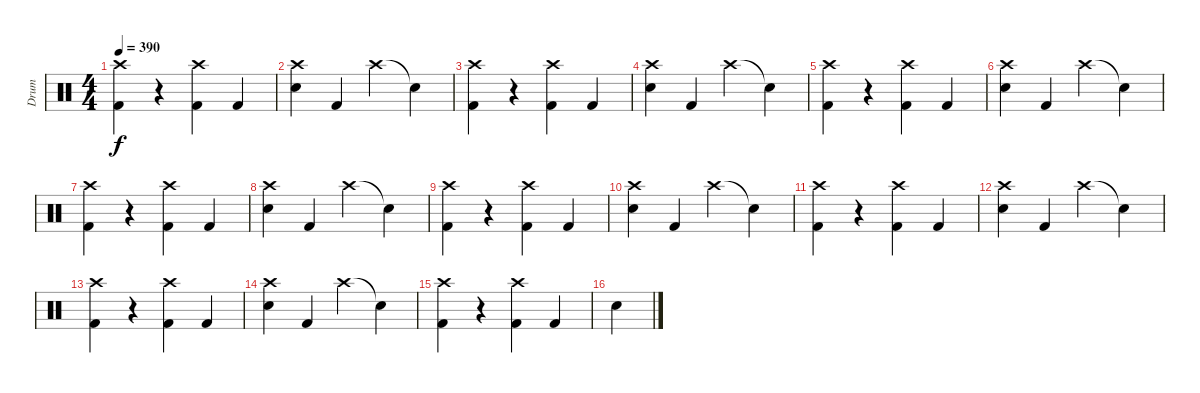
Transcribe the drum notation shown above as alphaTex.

\track ("Drum" "Drum") {instrument percussion}
\staff {score}
\articulation defaults
\ts (4 4)
\tempo 390
\clef neutral
\ks c
("Crash high (hit)" "Kick (hit) 2").4{dy f} r.4 ("Crash high (hit)" "Kick (hit) 2").4 "Kick (hit) 2".4 |
("Crash high (hit)" "Electric Snare (hit)").4 "Kick (hit) 2".4 "Crash high (hit)".4 "Snare (hit)"{t}.4 |
("Crash high (hit)" "Kick (hit) 2").4 r.4 ("Crash high (hit)" "Kick (hit) 2").4 "Kick (hit) 2".4 |
("Crash high (hit)" "Electric Snare (hit)").4 "Kick (hit) 2".4 "Crash high (hit)".4 "Snare (hit)"{t}.4 |
("Crash high (hit)" "Kick (hit) 2").4 r.4 ("Crash high (hit)" "Kick (hit) 2").4 "Kick (hit) 2".4 |
("Crash high (hit)" "Electric Snare (hit)").4 "Kick (hit) 2".4 "Crash high (hit)".4 "Snare (hit)"{t}.4 |
("Crash high (hit)" "Kick (hit) 2").4 r.4 ("Crash high (hit)" "Kick (hit) 2").4 "Kick (hit) 2".4 |
("Crash high (hit)" "Electric Snare (hit)").4 "Kick (hit) 2".4 "Crash high (hit)".4 "Snare (hit)"{t}.4 |
("Crash high (hit)" "Kick (hit) 2").4 r.4 ("Crash high (hit)" "Kick (hit) 2").4 "Kick (hit) 2".4 |
("Crash high (hit)" "Electric Snare (hit)").4 "Kick (hit) 2".4 "Crash high (hit)".4 "Snare (hit)"{t}.4 |
("Crash high (hit)" "Kick (hit) 2").4 r.4 ("Crash high (hit)" "Kick (hit) 2").4 "Kick (hit) 2".4 |
("Crash high (hit)" "Electric Snare (hit)").4 "Kick (hit) 2".4 "Crash high (hit)".4 "Snare (hit)"{t}.4 |
("Crash high (hit)" "Kick (hit) 2").4 r.4 ("Crash high (hit)" "Kick (hit) 2").4 "Kick (hit) 2".4 |
("Crash high (hit)" "Electric Snare (hit)").4 "Kick (hit) 2".4 "Crash high (hit)".4 "Snare (hit)"{t}.4 |
("Crash high (hit)" "Kick (hit) 2").4 r.4 ("Crash high (hit)" "Kick (hit) 2").4 "Kick (hit) 2".4 |
"Electric Snare (hit)".4
